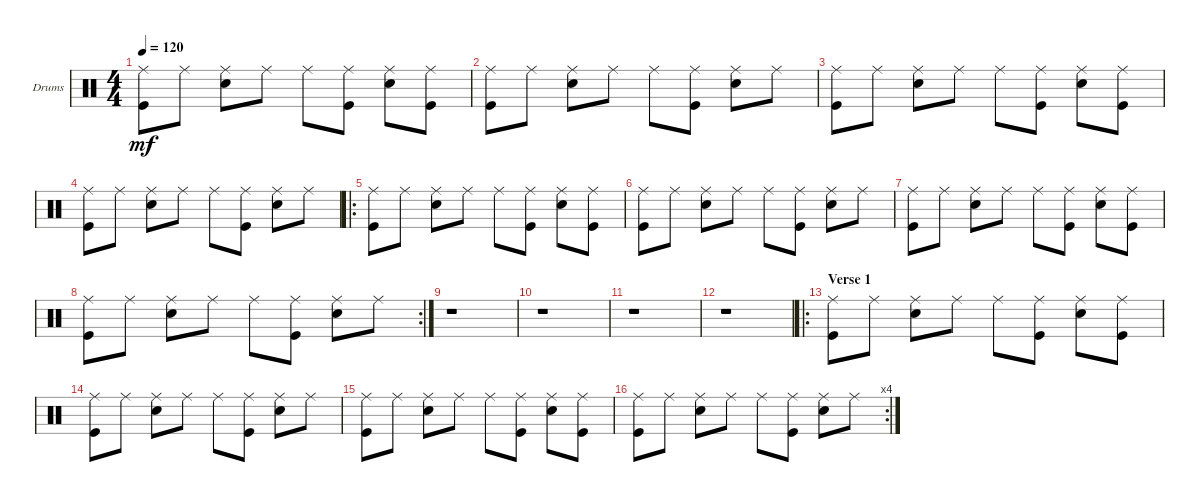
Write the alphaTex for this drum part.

\defaultSystemsLayout 4
\bracketExtendMode groupsimilarinstruments
\firstSystemTrackNameOrientation horizontal
\otherSystemsTrackNameOrientation horizontal
\track ("Drumkit" "Drums") {instrument percussion}
\staff {score}
\articulation defaults
\ts (4 4)
\tempo 120
\clef neutral
\scale
0.474178
\ks c
("Ride (middle)" "Kick (hit)").8{dy mf} "Ride (middle)".8 ("Ride (middle)" "Snare (hit) 2").8 "Ride (middle)".8 "Ride (middle)".8 ("Ride (middle)" "Kick (hit)").8 ("Ride (middle)" "Snare (hit) 2").8 ("Ride (middle)" "Kick (hit)").8 |
\scale
0.262911 ("Ride (middle)" "Kick (hit)").8 "Ride (middle)".8 ("Ride (middle)" "Snare (hit) 2").8 "Ride (middle)".8 "Ride (middle)".8 ("Ride (middle)" "Kick (hit)").8 ("Ride (middle)" "Snare (hit) 2").8 "Ride (middle)".8 |
\scale
0.262911 ("Ride (middle)" "Kick (hit)").8 "Ride (middle)".8 ("Ride (middle)" "Snare (hit) 2").8 "Ride (middle)".8 "Ride (middle)".8 ("Ride (middle)" "Kick (hit)").8 ("Ride (middle)" "Snare (hit) 2").8 ("Ride (middle)" "Kick (hit)").8 |
\scale
0.333333 ("Ride (middle)" "Kick (hit)").8 "Ride (middle)".8 ("Ride (middle)" "Snare (hit) 2").8 "Ride (middle)".8 "Ride (middle)".8 ("Ride (middle)" "Kick (hit)").8 ("Ride (middle)" "Snare (hit) 2").8 "Ride (middle)".8 |
\ro
\scale
0.333333 ("Ride (middle)" "Kick (hit)").8 "Ride (middle)".8 ("Ride (middle)" "Snare (hit) 2").8 "Ride (middle)".8 "Ride (middle)".8 ("Ride (middle)" "Kick (hit)").8 ("Ride (middle)" "Snare (hit) 2").8 ("Ride (middle)" "Kick (hit)").8 |
\scale
0.333333 ("Ride (middle)" "Kick (hit)").8 "Ride (middle)".8 ("Ride (middle)" "Snare (hit) 2").8 "Ride (middle)".8 "Ride (middle)".8 ("Ride (middle)" "Kick (hit)").8 ("Ride (middle)" "Snare (hit) 2").8 "Ride (middle)".8 |
\scale
0.333333 ("Ride (middle)" "Kick (hit)").8 "Ride (middle)".8 ("Ride (middle)" "Snare (hit) 2").8 "Ride (middle)".8 "Ride (middle)".8 ("Ride (middle)" "Kick (hit)").8 ("Ride (middle)" "Snare (hit) 2").8 ("Ride (middle)" "Kick (hit)").8 |
\rc 2
\scale
0.333333 ("Ride (middle)" "Kick (hit)").8 "Ride (middle)".8 ("Ride (middle)" "Snare (hit) 2").8 "Ride (middle)".8 "Ride (middle)".8 ("Ride (middle)" "Kick (hit)").8 ("Ride (middle)" "Snare (hit) 2").8 "Ride (middle)".8 |
\scale
0.333333 r.1 |
\scale
0.333333 r.1 |
\scale
0.333333 r.1 |
\scale
0.333333 r.1 |
\ro
\section ("" "Verse 1")
\scale
0.333333 ("Ride (middle)" "Kick (hit)").8 "Ride (middle)".8 ("Ride (middle)" "Snare (hit) 2").8 "Ride (middle)".8 "Ride (middle)".8 ("Ride (middle)" "Kick (hit)").8 ("Ride (middle)" "Snare (hit) 2").8 ("Ride (middle)" "Kick (hit)").8 |
("Ride (middle)" "Kick (hit)").8 "Ride (middle)".8 ("Ride (middle)" "Snare (hit) 2").8 "Ride (middle)".8 "Ride (middle)".8 ("Ride (middle)" "Kick (hit)").8 ("Ride (middle)" "Snare (hit) 2").8 "Ride (middle)".8 |
("Ride (middle)" "Kick (hit)").8 "Ride (middle)".8 ("Ride (middle)" "Snare (hit) 2").8 "Ride (middle)".8 "Ride (middle)".8 ("Ride (middle)" "Kick (hit)").8 ("Ride (middle)" "Snare (hit) 2").8 ("Ride (middle)" "Kick (hit)").8 |
\rc 4
("Ride (middle)" "Kick (hit)").8 "Ride (middle)".8 ("Ride (middle)" "Snare (hit) 2").8 "Ride (middle)".8 "Ride (middle)".8 ("Ride (middle)" "Kick (hit)").8 ("Ride (middle)" "Snare (hit) 2").8 "Ride (middle)".8
